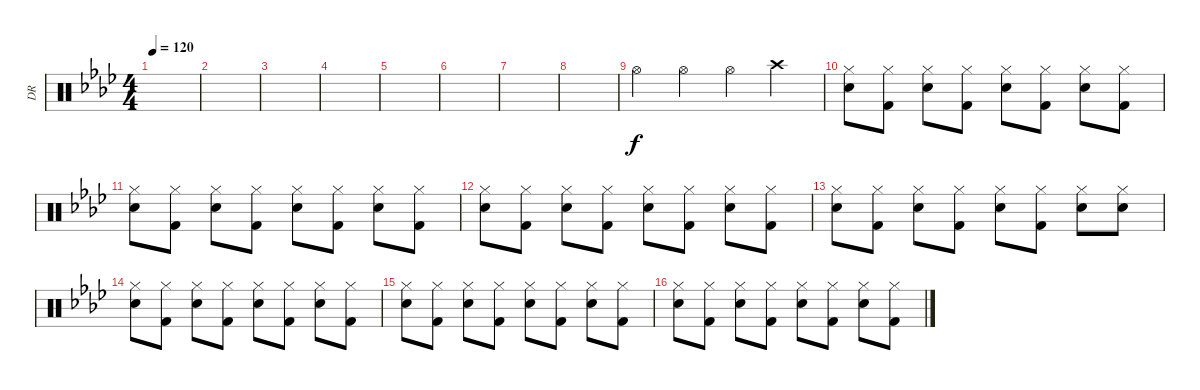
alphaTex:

\track ("DR" "DR") {instrument percussion}
\staff {score}
\articulation defaults
\ts (4 4)
\tempo 120
\clef neutral
\ks ab
|
|
|
|
|
|
|
|
"Hi-Hat (open)".4 "Hi-Hat (open)".4 "Hi-Hat (open)".4 "Crash high (hit)".4 |
("Hi-Hat (closed)" "Electric Snare (hit)").8 ("Hi-Hat (closed)" "Kick (hit) 2").8 ("Hi-Hat (closed)" "Electric Snare (hit)").8 ("Hi-Hat (closed)" "Kick (hit) 2").8 ("Hi-Hat (closed)" "Electric Snare (hit)").8 ("Hi-Hat (closed)" "Kick (hit) 2").8 ("Hi-Hat (closed)" "Electric Snare (hit)").8 ("Hi-Hat (closed)" "Kick (hit) 2").8 |
("Hi-Hat (closed)" "Electric Snare (hit)").8 ("Hi-Hat (closed)" "Kick (hit) 2").8 ("Hi-Hat (closed)" "Electric Snare (hit)").8 ("Hi-Hat (closed)" "Kick (hit) 2").8 ("Hi-Hat (closed)" "Electric Snare (hit)").8 ("Hi-Hat (closed)" "Kick (hit) 2").8 ("Hi-Hat (closed)" "Electric Snare (hit)").8 ("Hi-Hat (closed)" "Kick (hit) 2").8 |
("Hi-Hat (closed)" "Electric Snare (hit)").8 ("Hi-Hat (closed)" "Kick (hit) 2").8 ("Hi-Hat (closed)" "Electric Snare (hit)").8 ("Hi-Hat (closed)" "Kick (hit) 2").8 ("Hi-Hat (closed)" "Electric Snare (hit)").8 ("Hi-Hat (closed)" "Kick (hit) 2").8 ("Hi-Hat (closed)" "Electric Snare (hit)").8 ("Hi-Hat (closed)" "Kick (hit) 2").8 |
("Hi-Hat (closed)" "Electric Snare (hit)").8 ("Hi-Hat (closed)" "Kick (hit) 2").8 ("Hi-Hat (closed)" "Electric Snare (hit)").8 ("Hi-Hat (closed)" "Kick (hit) 2").8 ("Hi-Hat (closed)" "Electric Snare (hit)").8 ("Hi-Hat (closed)" "Kick (hit) 2").8 ("Hi-Hat (closed)" "Electric Snare (hit)").8 ("Hi-Hat (closed)" "Electric Snare (hit)").8 |
("Hi-Hat (closed)" "Electric Snare (hit)").8 ("Hi-Hat (closed)" "Kick (hit) 2").8 ("Hi-Hat (closed)" "Electric Snare (hit)").8 ("Hi-Hat (closed)" "Kick (hit) 2").8 ("Hi-Hat (closed)" "Electric Snare (hit)").8 ("Hi-Hat (closed)" "Kick (hit) 2").8 ("Hi-Hat (closed)" "Electric Snare (hit)").8 ("Hi-Hat (closed)" "Kick (hit) 2").8 |
("Hi-Hat (closed)" "Electric Snare (hit)").8 ("Hi-Hat (closed)" "Kick (hit) 2").8 ("Hi-Hat (closed)" "Electric Snare (hit)").8 ("Hi-Hat (closed)" "Kick (hit) 2").8 ("Hi-Hat (closed)" "Electric Snare (hit)").8 ("Hi-Hat (closed)" "Kick (hit) 2").8 ("Hi-Hat (closed)" "Electric Snare (hit)").8 ("Hi-Hat (closed)" "Kick (hit) 2").8 |
("Hi-Hat (closed)" "Electric Snare (hit)").8 ("Hi-Hat (closed)" "Kick (hit) 2").8 ("Hi-Hat (closed)" "Electric Snare (hit)").8 ("Hi-Hat (closed)" "Kick (hit) 2").8 ("Hi-Hat (closed)" "Electric Snare (hit)").8 ("Hi-Hat (closed)" "Kick (hit) 2").8 ("Hi-Hat (closed)" "Electric Snare (hit)").8 ("Hi-Hat (closed)" "Kick (hit) 2").8
